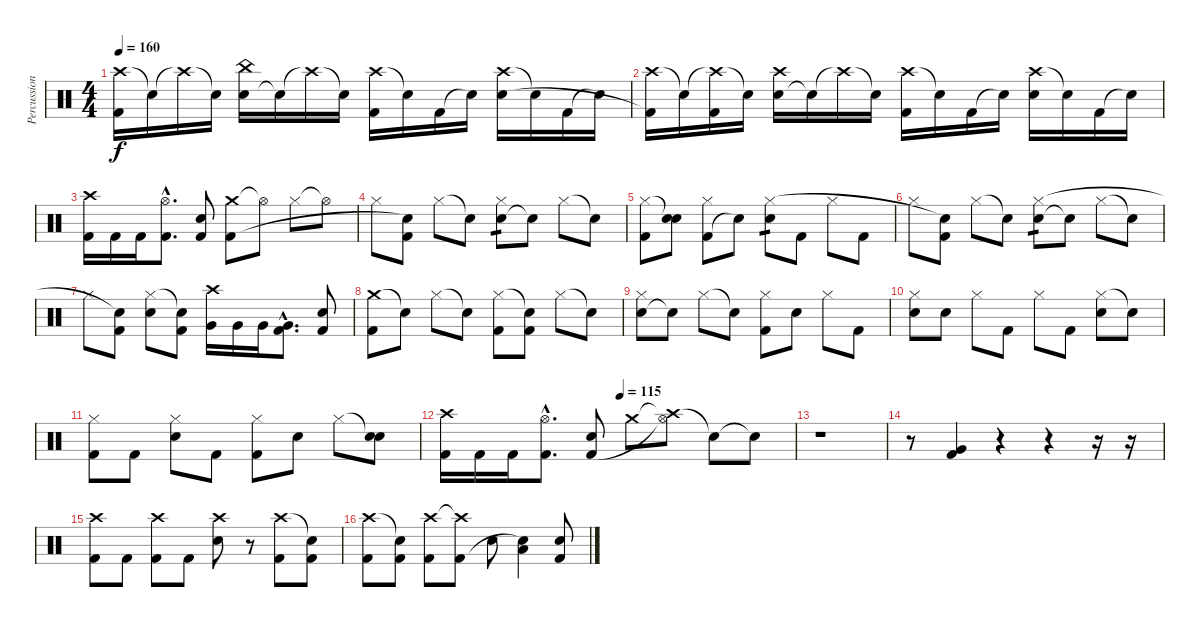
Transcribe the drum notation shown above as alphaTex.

\track ("Percussion" "Percussion") {instrument percussion}
\staff {score}
\articulation defaults
\ts (4 4)
\tempo 160
\clef neutral
\ks c
("Crash high (hit)" "Kick (hit) 2").16{dy f} "Snare (hit)"{t}.16 "Crash high (hit)"{t}.16 "Snare (hit)"{t}.16 ("Electric Snare (hit)" "China (hit)").16 "Snare (hit)"{t}.16 "Crash high (hit)"{t}.16 "Snare (hit)"{t}.16 ("Crash high (hit)" "Kick (hit) 2").16 "Snare (hit)"{t}.16 "Kick (hit) 2".16 "Snare (hit)"{t}.16 ("Crash high (hit)" "Electric Snare (hit)").16 "Snare (hit)"{t}.16 "Kick (hit) 2".16 "Snare (hit)"{t}.16 |
("Crash high (hit)" "Kick (hit) 2"{t}).16 "Snare (hit)"{t}.16 ("Crash high (hit)"{t} "Kick (hit) 2").16 "Snare (hit)"{t}.16 ("Electric Snare (hit)" "Crash high (hit)").16 "Snare (hit)"{t}.16 "Crash high (hit)"{t}.16 "Snare (hit)"{t}.16 ("Crash high (hit)" "Kick (hit) 2").16 "Snare (hit)"{t}.16 "Kick (hit) 2".16 "Snare (hit)"{t}.16 ("Crash high (hit)" "Electric Snare (hit)").16 "Snare (hit)"{t}.16 "Kick (hit) 2".16 "Snare (hit)"{t}.16 |
("Crash high (hit)" "Kick (hit) 2").16 "Kick (hit) 2".16 "Kick (hit) 2".16 ("Hi-Hat (open)"{hac} "Kick (hit) 2"{hac}).8{d} ("Electric Snare (hit)" "Kick (hit) 2").8 ("Crash medium (hit)" "Kick (hit) 2").8 "Hi-Hat (open)"{t}.8 "Hi-Hat (closed)".8 "Hi-Hat (open)"{t}.8 |
"Hi-Hat (closed)".8 ("Kick (hit) 2" "Snare (hit)"{t}).8 "Hi-Hat (closed)".8 "Snare (hit)"{t}.8 ("Electric Snare (hit)" "Hi-Hat (closed)").8{tp 1} "Snare (hit)"{t}.8 "Hi-Hat (closed)".8 "Snare (hit)"{t}.8 |
("Kick (hit) 2" "Hi-Hat (closed)").8 ("Electric Snare (hit)" "Snare (hit)"{t}).8 ("Kick (hit) 2" "Hi-Hat (closed)").8 "Snare (hit)"{t}.8 ("Electric Snare (hit)" "Hi-Hat (closed)").8{tp 1} "Kick (hit) 2".8 "Hi-Hat (closed)".8 "Kick (hit) 2".8 |
"Hi-Hat (closed)".8 ("Kick (hit) 2" "Snare (hit)"{t}).8 "Hi-Hat (closed)".8 "Snare (hit)"{t}.8 ("Electric Snare (hit)" "Hi-Hat (closed)").8{tp 1} "Snare (hit)"{t}.8 "Hi-Hat (closed)".8 "Snare (hit)"{t}.8 |
"Hi-Hat (closed)".8 ("Kick (hit) 2" "Snare (hit)"{t}).8 ("Electric Snare (hit)" "Hi-Hat (closed)").8 ("Kick (hit) 2" "Snare (hit)"{t}).8 ("Crash high (hit)" "Very Low Tom (hit)").16 "Very Low Tom (hit)".16 "Very Low Tom (hit)".16 ("Very Low Tom (hit)"{hac} "Kick (hit) 2"{hac}).8{d} ("Kick (hit) 2" "Electric Snare (hit)").8 |
("Crash medium (hit)" "Kick (hit) 2").8 "Snare (hit)"{t}.8 "Hi-Hat (closed)".8 "Snare (hit)"{t}.8 ("Kick (hit) 2" "Hi-Hat (closed)").8 ("Kick (hit) 2" "Snare (hit)"{t}).8 "Hi-Hat (closed)".8 "Snare (hit)"{t}.8 |
("Electric Snare (hit)" "Hi-Hat (closed)").8 "Snare (hit)"{t}.8 "Hi-Hat (closed)".8 "Snare (hit)"{t}.8 ("Kick (hit) 2" "Hi-Hat (closed)").8 "Electric Snare (hit)".8 "Hi-Hat (closed)".8 "Kick (hit) 2".8 |
("Electric Snare (hit)" "Hi-Hat (closed)").8 "Electric Snare (hit)".8 "Hi-Hat (closed)".8 "Kick (hit) 2".8 "Hi-Hat (closed)".8 "Kick (hit) 2".8 ("Hi-Hat (closed)" "Electric Snare (hit)").8 "Snare (hit)"{t}.8 |
("Hi-Hat (closed)" "Kick (hit) 2").8 "Kick (hit) 2".8 ("Electric Snare (hit)" "Hi-Hat (closed)").8 "Kick (hit) 2".8 ("Hi-Hat (closed)" "Kick (hit) 2").8 "Electric Snare (hit)".8 "Hi-Hat (closed)".8 ("Snare (hit)"{t} "Electric Snare (hit)").8 |
\tempo (115 0.5)
("Crash high (hit)" "Kick (hit) 2").16 "Kick (hit) 2".16 "Kick (hit) 2".16 ("Hi-Hat (open)"{hac} "Kick (hit) 2"{hac}).8{d} ("Electric Snare (hit)" "Kick (hit) 2").8 "Crash medium (hit)".8 ("Crash high (hit)"{t} "Hi-Hat (open)"{t}).8 "Snare (hit)"{t}.8 "Snare (hit)"{t}.8 |
r.1 |
r.8 ("Kick (hit) 2" "Very Low Tom (hit)").4 r.4 r.4 r.16 r.16 |
("Crash high (hit)" "Kick (hit) 2").8 "Kick (hit) 2".8 ("Crash high (hit)" "Kick (hit) 2").8 "Kick (hit) 2".8 ("Crash high (hit)" "Electric Snare (hit)").8 r.8 ("Crash high (hit)" "Kick (hit) 2").8 ("Snare (hit)"{t} "Kick (hit) 2").8 |
("Crash high (hit)" "Kick (hit) 2").8 ("Snare (hit)"{t} "Kick (hit) 2").8 ("Crash high (hit)" "Kick (hit) 2").8 ("Crash high (hit)"{t} "Kick (hit) 2").8 "Electric Snare (hit)".8 ("Low Tom (hit)" "Snare (hit)"{t}).4 ("Electric Snare (hit)" "Kick (hit) 2").8
